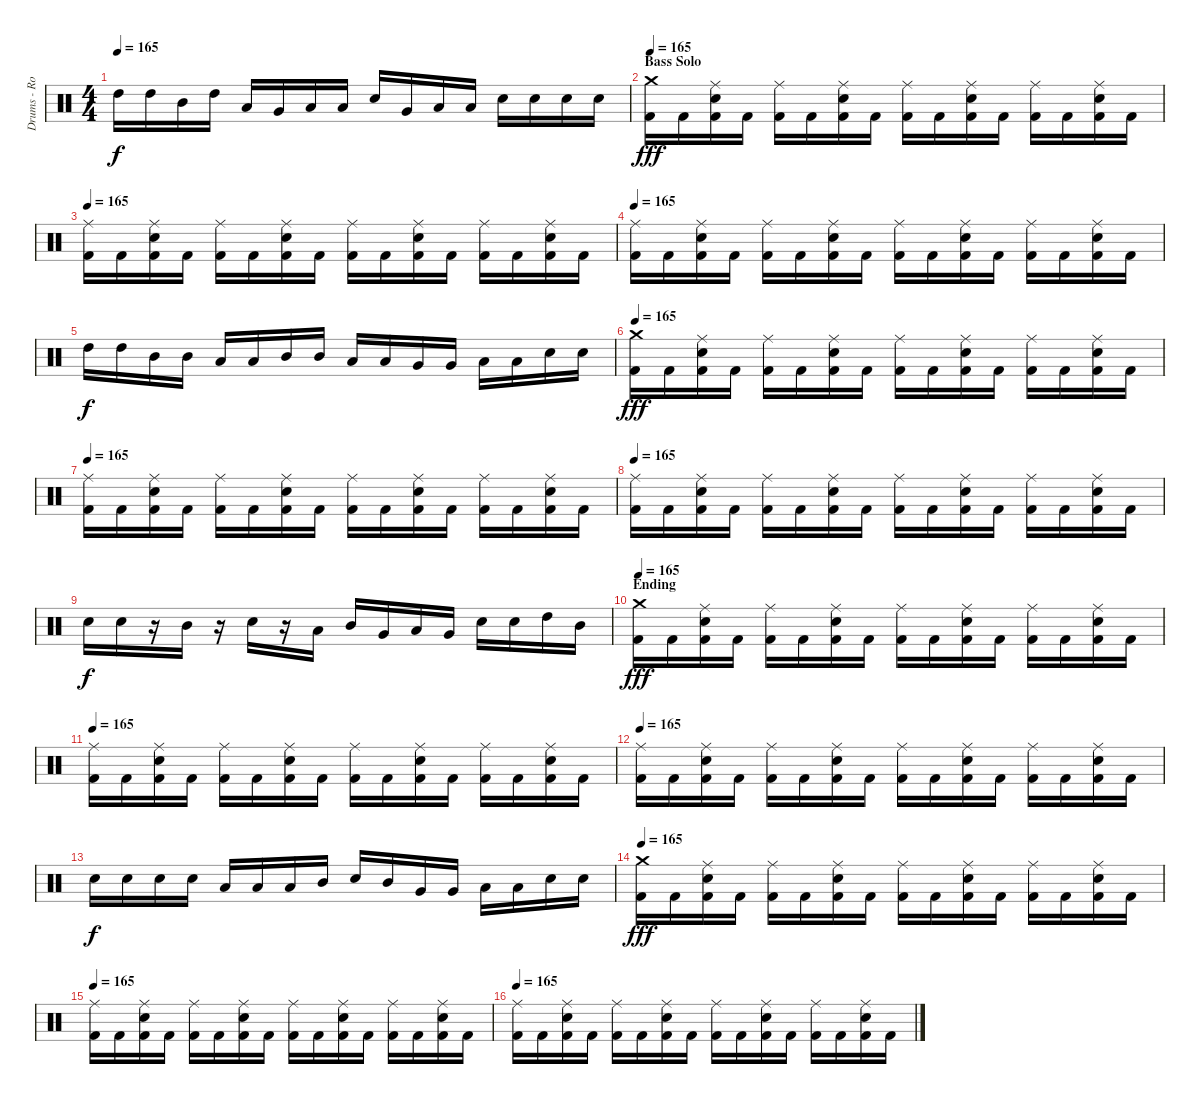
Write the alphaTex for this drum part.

\track ("Drums - Rodrigo" "Drums - Ro") {instrument percussion}
\staff {score}
\articulation defaults
\ts (4 4)
\tempo 165
\clef neutral
\ks c "High Tom (hit)".16{dy f} "High Tom (hit)".16 "Mid Tom (hit)".16 "High Tom (hit)".16 "Low Tom (hit)".16 "Very Low Tom (hit)".16 "Low Floor Tom (hit)".16 "Low Floor Tom (hit)".16 "Electric Snare (hit)".16 "Very Low Tom (hit)".16 "Low Tom (hit)".16 "Low Tom (hit)".16 "Electric Snare (hit)".16 "Electric Snare (hit)".16 "Electric Snare (hit)".16 "Electric Snare (hit)".16
|
\section ("" "Bass Solo")
\tempo 165
("Crash medium (hit)" "Kick (hit) 2").16{dy fff} "Kick (hit) 2".16 ("Ride (middle)" "Electric Snare (hit)" "Kick (hit) 2").16 "Kick (hit) 2".16 ("Ride (middle)" "Kick (hit) 2").16 "Kick (hit) 2".16 ("Ride (middle)" "Electric Snare (hit)" "Kick (hit) 2").16 "Kick (hit) 2".16 ("Ride (middle)" "Kick (hit) 2").16 "Kick (hit) 2".16 ("Ride (middle)" "Electric Snare (hit)" "Kick (hit) 2").16 "Kick (hit) 2".16 ("Ride (middle)" "Kick (hit) 2").16 "Kick (hit) 2".16 ("Ride (middle)" "Electric Snare (hit)" "Kick (hit) 2").16 "Kick (hit) 2".16 |
\tempo 165
("Ride (middle)" "Kick (hit) 2").16 "Kick (hit) 2".16 ("Ride (middle)" "Electric Snare (hit)" "Kick (hit) 2").16 "Kick (hit) 2".16 ("Ride (middle)" "Kick (hit) 2").16 "Kick (hit) 2".16 ("Ride (middle)" "Electric Snare (hit)" "Kick (hit) 2").16 "Kick (hit) 2".16 ("Ride (middle)" "Kick (hit) 2").16 "Kick (hit) 2".16 ("Ride (middle)" "Electric Snare (hit)" "Kick (hit) 2").16 "Kick (hit) 2".16 ("Ride (middle)" "Kick (hit) 2").16 "Kick (hit) 2".16 ("Ride (middle)" "Electric Snare (hit)" "Kick (hit) 2").16 "Kick (hit) 2".16 |
\tempo 165
("Ride (middle)" "Kick (hit) 2").16 "Kick (hit) 2".16 ("Ride (middle)" "Electric Snare (hit)" "Kick (hit) 2").16 "Kick (hit) 2".16 ("Ride (middle)" "Kick (hit) 2").16 "Kick (hit) 2".16 ("Ride (middle)" "Electric Snare (hit)" "Kick (hit) 2").16 "Kick (hit) 2".16 ("Ride (middle)" "Kick (hit) 2").16 "Kick (hit) 2".16 ("Ride (middle)" "Electric Snare (hit)" "Kick (hit) 2").16 "Kick (hit) 2".16 ("Ride (middle)" "Kick (hit) 2").16 "Kick (hit) 2".16 ("Ride (middle)" "Electric Snare (hit)" "Kick (hit) 2").16 "Kick (hit) 2".16 |
"High Tom (hit)".16{dy f} "High Tom (hit)".16 "Mid Tom (hit)".16 "Mid Tom (hit)".16 "Low Tom (hit)".16 "Low Tom (hit)".16 "Mid Tom (hit)".16 "Mid Tom (hit)".16 "Low Floor Tom (hit)".16 "Low Floor Tom (hit)".16 "Very Low Tom (hit)".16 "Very Low Tom (hit)".16 "Low Floor Tom (hit)".16 "Low Floor Tom (hit)".16 "Electric Snare (hit)".16 "Electric Snare (hit)".16 |
\tempo 165
("Crash medium (hit)" "Kick (hit) 2").16{dy fff} "Kick (hit) 2".16 ("Ride (middle)" "Electric Snare (hit)" "Kick (hit) 2").16 "Kick (hit) 2".16 ("Ride (middle)" "Kick (hit) 2").16 "Kick (hit) 2".16 ("Ride (middle)" "Electric Snare (hit)" "Kick (hit) 2").16 "Kick (hit) 2".16 ("Ride (middle)" "Kick (hit) 2").16 "Kick (hit) 2".16 ("Ride (middle)" "Electric Snare (hit)" "Kick (hit) 2").16 "Kick (hit) 2".16 ("Ride (middle)" "Kick (hit) 2").16 "Kick (hit) 2".16 ("Ride (middle)" "Electric Snare (hit)" "Kick (hit) 2").16 "Kick (hit) 2".16 |
\tempo 165
("Ride (middle)" "Kick (hit) 2").16 "Kick (hit) 2".16 ("Ride (middle)" "Electric Snare (hit)" "Kick (hit) 2").16 "Kick (hit) 2".16 ("Ride (middle)" "Kick (hit) 2").16 "Kick (hit) 2".16 ("Ride (middle)" "Electric Snare (hit)" "Kick (hit) 2").16 "Kick (hit) 2".16 ("Ride (middle)" "Kick (hit) 2").16 "Kick (hit) 2".16 ("Ride (middle)" "Electric Snare (hit)" "Kick (hit) 2").16 "Kick (hit) 2".16 ("Ride (middle)" "Kick (hit) 2").16 "Kick (hit) 2".16 ("Ride (middle)" "Electric Snare (hit)" "Kick (hit) 2").16 "Kick (hit) 2".16 |
\tempo 165
("Ride (middle)" "Kick (hit) 2").16 "Kick (hit) 2".16 ("Ride (middle)" "Electric Snare (hit)" "Kick (hit) 2").16 "Kick (hit) 2".16 ("Ride (middle)" "Kick (hit) 2").16 "Kick (hit) 2".16 ("Ride (middle)" "Electric Snare (hit)" "Kick (hit) 2").16 "Kick (hit) 2".16 ("Ride (middle)" "Kick (hit) 2").16 "Kick (hit) 2".16 ("Ride (middle)" "Electric Snare (hit)" "Kick (hit) 2").16 "Kick (hit) 2".16 ("Ride (middle)" "Kick (hit) 2").16 "Kick (hit) 2".16 ("Ride (middle)" "Electric Snare (hit)" "Kick (hit) 2").16 "Kick (hit) 2".16 |
"Electric Snare (hit)".16{dy f} "Electric Snare (hit)".16 r.16 "Mid Tom (hit)".16 r.16 "Electric Snare (hit)".16 r.16 "Low Tom (hit)".16 "Mid Tom (hit)".16 "Very Low Tom (hit)".16 "Low Floor Tom (hit)".16 "Very Low Tom (hit)".16 "Electric Snare (hit)".16 "Electric Snare (hit)".16 "High Tom (hit)".16 "Mid Tom (hit)".16 |
\section ("" "Ending")
\tempo 165
("Crash medium (hit)" "Kick (hit) 2").16{dy fff} "Kick (hit) 2".16 ("Ride (middle)" "Electric Snare (hit)" "Kick (hit) 2").16 "Kick (hit) 2".16 ("Ride (middle)" "Kick (hit) 2").16 "Kick (hit) 2".16 ("Ride (middle)" "Electric Snare (hit)" "Kick (hit) 2").16 "Kick (hit) 2".16 ("Ride (middle)" "Kick (hit) 2").16 "Kick (hit) 2".16 ("Ride (middle)" "Electric Snare (hit)" "Kick (hit) 2").16 "Kick (hit) 2".16 ("Ride (middle)" "Kick (hit) 2").16 "Kick (hit) 2".16 ("Ride (middle)" "Electric Snare (hit)" "Kick (hit) 2").16 "Kick (hit) 2".16 |
\tempo 165
("Ride (middle)" "Kick (hit) 2").16 "Kick (hit) 2".16 ("Ride (middle)" "Electric Snare (hit)" "Kick (hit) 2").16 "Kick (hit) 2".16 ("Ride (middle)" "Kick (hit) 2").16 "Kick (hit) 2".16 ("Ride (middle)" "Electric Snare (hit)" "Kick (hit) 2").16 "Kick (hit) 2".16 ("Ride (middle)" "Kick (hit) 2").16 "Kick (hit) 2".16 ("Ride (middle)" "Electric Snare (hit)" "Kick (hit) 2").16 "Kick (hit) 2".16 ("Ride (middle)" "Kick (hit) 2").16 "Kick (hit) 2".16 ("Ride (middle)" "Electric Snare (hit)" "Kick (hit) 2").16 "Kick (hit) 2".16 |
\tempo 165
("Ride (middle)" "Kick (hit) 2").16 "Kick (hit) 2".16 ("Ride (middle)" "Electric Snare (hit)" "Kick (hit) 2").16 "Kick (hit) 2".16 ("Ride (middle)" "Kick (hit) 2").16 "Kick (hit) 2".16 ("Ride (middle)" "Electric Snare (hit)" "Kick (hit) 2").16 "Kick (hit) 2".16 ("Ride (middle)" "Kick (hit) 2").16 "Kick (hit) 2".16 ("Ride (middle)" "Electric Snare (hit)" "Kick (hit) 2").16 "Kick (hit) 2".16 ("Ride (middle)" "Kick (hit) 2").16 "Kick (hit) 2".16 ("Ride (middle)" "Electric Snare (hit)" "Kick (hit) 2").16 "Kick (hit) 2".16 |
"Electric Snare (hit)".16{dy f} "Electric Snare (hit)".16 "Electric Snare (hit)".16 "Electric Snare (hit)".16 "Low Tom (hit)".16 "Low Tom (hit)".16 "Low Tom (hit)".16 "Mid Tom (hit)".16 "Electric Snare (hit)".16 "Mid Tom (hit)".16 "Very Low Tom (hit)".16 "Very Low Tom (hit)".16 "Low Floor Tom (hit)".16 "Low Floor Tom (hit)".16 "Electric Snare (hit)".16 "Electric Snare (hit)".16 |
\tempo 165
("Crash medium (hit)" "Kick (hit) 2").16{dy fff} "Kick (hit) 2".16 ("Ride (middle)" "Electric Snare (hit)" "Kick (hit) 2").16 "Kick (hit) 2".16 ("Ride (middle)" "Kick (hit) 2").16 "Kick (hit) 2".16 ("Ride (middle)" "Electric Snare (hit)" "Kick (hit) 2").16 "Kick (hit) 2".16 ("Ride (middle)" "Kick (hit) 2").16 "Kick (hit) 2".16 ("Ride (middle)" "Electric Snare (hit)" "Kick (hit) 2").16 "Kick (hit) 2".16 ("Ride (middle)" "Kick (hit) 2").16 "Kick (hit) 2".16 ("Ride (middle)" "Electric Snare (hit)" "Kick (hit) 2").16 "Kick (hit) 2".16 |
\tempo 165
("Ride (middle)" "Kick (hit) 2").16 "Kick (hit) 2".16 ("Ride (middle)" "Electric Snare (hit)" "Kick (hit) 2").16 "Kick (hit) 2".16 ("Ride (middle)" "Kick (hit) 2").16 "Kick (hit) 2".16 ("Ride (middle)" "Electric Snare (hit)" "Kick (hit) 2").16 "Kick (hit) 2".16 ("Ride (middle)" "Kick (hit) 2").16 "Kick (hit) 2".16 ("Ride (middle)" "Electric Snare (hit)" "Kick (hit) 2").16 "Kick (hit) 2".16 ("Ride (middle)" "Kick (hit) 2").16 "Kick (hit) 2".16 ("Ride (middle)" "Electric Snare (hit)" "Kick (hit) 2").16 "Kick (hit) 2".16 |
\tempo 165
("Ride (middle)" "Kick (hit) 2").16 "Kick (hit) 2".16 ("Ride (middle)" "Electric Snare (hit)" "Kick (hit) 2").16 "Kick (hit) 2".16 ("Ride (middle)" "Kick (hit) 2").16 "Kick (hit) 2".16 ("Ride (middle)" "Electric Snare (hit)" "Kick (hit) 2").16 "Kick (hit) 2".16 ("Ride (middle)" "Kick (hit) 2").16 "Kick (hit) 2".16 ("Ride (middle)" "Electric Snare (hit)" "Kick (hit) 2").16 "Kick (hit) 2".16 ("Ride (middle)" "Kick (hit) 2").16 "Kick (hit) 2".16 ("Ride (middle)" "Electric Snare (hit)" "Kick (hit) 2").16 "Kick (hit) 2".16
